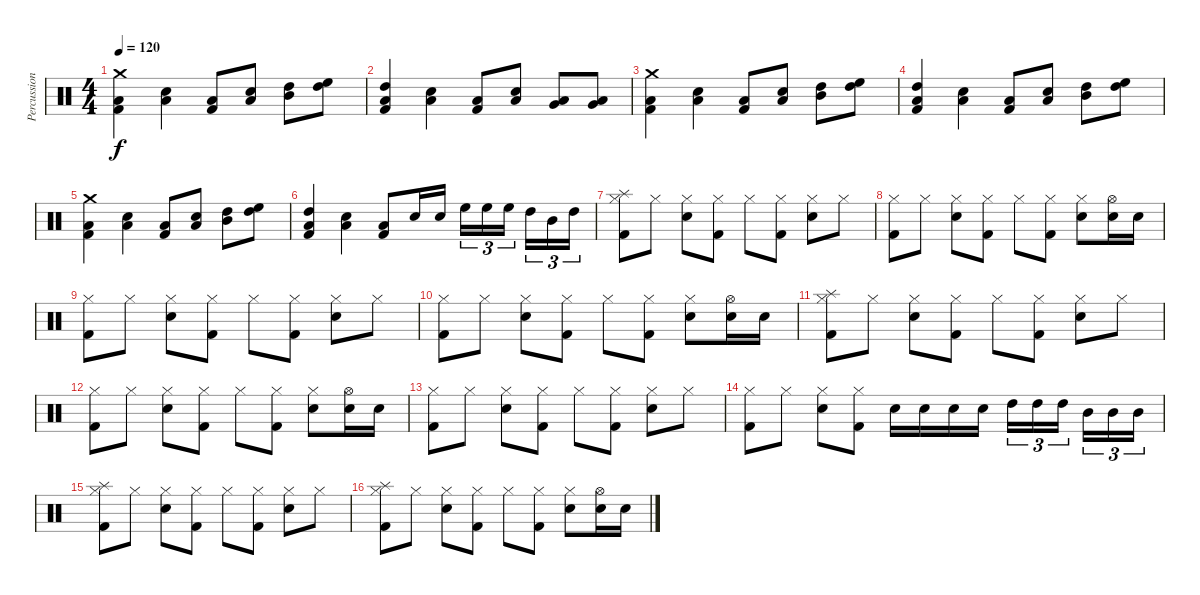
\track ("Percussion" "Percussion") {instrument percussion}
\staff {score}
\articulation defaults
\ts (4 4)
\tempo 120
\clef neutral
\ks c
("Kick (hit) 2" "Low Tom (hit)" "Crash medium (hit)").4{dy f} ("Electric Snare (hit)" "Low Tom (hit)").4 ("Kick (hit) 2" "Low Tom (hit)").8 ("Electric Snare (hit)" "Low Tom (hit)").8 ("High Tom (hit)" "Mid Tom (hit)").8 ("High Tom (hit)" "High Floor Tom (hit)").8 |
("Kick (hit) 2" "Low Tom (hit)" "High Tom (hit)").4 ("Electric Snare (hit)" "Low Tom (hit)").4 ("Kick (hit) 2" "Low Tom (hit)").8 ("Electric Snare (hit)" "Low Tom (hit)").8 ("Very Low Tom (hit)" "Low Tom (hit)").8 ("Very Low Tom (hit)" "Low Tom (hit)").8 |
("Kick (hit) 2" "Low Tom (hit)" "Crash medium (hit)").4 ("Electric Snare (hit)" "Low Tom (hit)").4 ("Kick (hit) 2" "Low Tom (hit)").8 ("Electric Snare (hit)" "Low Tom (hit)").8 ("High Tom (hit)" "Mid Tom (hit)").8 ("High Tom (hit)" "High Floor Tom (hit)").8 |
("Kick (hit) 2" "Low Tom (hit)" "High Tom (hit)").4 ("Electric Snare (hit)" "Low Tom (hit)").4 ("Kick (hit) 2" "Low Tom (hit)").8 ("Electric Snare (hit)" "Low Tom (hit)").8 ("High Tom (hit)" "Mid Tom (hit)").8 ("High Tom (hit)" "High Floor Tom (hit)").8 |
("Kick (hit) 2" "Low Tom (hit)" "Crash medium (hit)").4 ("Electric Snare (hit)" "Low Tom (hit)").4 ("Kick (hit) 2" "Low Tom (hit)").8 ("Electric Snare (hit)" "Low Tom (hit)").8 ("High Tom (hit)" "Mid Tom (hit)").8 ("High Tom (hit)" "High Floor Tom (hit)").8 |
("Kick (hit) 2" "Low Tom (hit)" "High Tom (hit)").4 ("Electric Snare (hit)" "Low Tom (hit)").4 ("Kick (hit) 2" "Low Tom (hit)").8 "Electric Snare (hit)".16 "Electric Snare (hit)".16 "High Floor Tom (hit)".16{tu (3 2)} "High Floor Tom (hit)".16{tu (3 2)} "High Floor Tom (hit)".16{tu (3 2) beam splitsecondary} "High Tom (hit)".16{tu (3 2)} "Mid Tom (hit)".16{tu (3 2)} "High Tom (hit)".16{tu (3 2)} |
("Kick (hit) 2" "Hi-Hat (closed)" "Splash (hit)").8 "Hi-Hat (closed)".8 ("Hi-Hat (closed)" "Electric Snare (hit)").8 ("Kick (hit) 2" "Hi-Hat (closed)").8 "Hi-Hat (closed)".8 ("Kick (hit) 2" "Hi-Hat (closed)").8 ("Hi-Hat (closed)" "Electric Snare (hit)").8 "Hi-Hat (closed)".8 |
("Kick (hit) 2" "Hi-Hat (closed)").8 "Hi-Hat (closed)".8 ("Hi-Hat (closed)" "Electric Snare (hit)").8 ("Kick (hit) 2" "Hi-Hat (closed)").8 "Hi-Hat (closed)".8 ("Kick (hit) 2" "Hi-Hat (closed)").8 ("Hi-Hat (closed)" "Electric Snare (hit)").8 ("Hi-Hat (open)" "Electric Snare (hit)").16 "Electric Snare (hit)".16 |
("Kick (hit) 2" "Hi-Hat (closed)").8 "Hi-Hat (closed)".8 ("Hi-Hat (closed)" "Electric Snare (hit)").8 ("Kick (hit) 2" "Hi-Hat (closed)").8 "Hi-Hat (closed)".8 ("Kick (hit) 2" "Hi-Hat (closed)").8 ("Hi-Hat (closed)" "Electric Snare (hit)").8 "Hi-Hat (closed)".8 |
("Kick (hit) 2" "Hi-Hat (closed)").8 "Hi-Hat (closed)".8 ("Hi-Hat (closed)" "Electric Snare (hit)").8 ("Kick (hit) 2" "Hi-Hat (closed)").8 "Hi-Hat (closed)".8 ("Kick (hit) 2" "Hi-Hat (closed)").8 ("Hi-Hat (closed)" "Electric Snare (hit)").8 ("Hi-Hat (open)" "Electric Snare (hit)").16 "Electric Snare (hit)".16 |
("Kick (hit) 2" "Hi-Hat (closed)" "Splash (hit)").8 "Hi-Hat (closed)".8 ("Hi-Hat (closed)" "Electric Snare (hit)").8 ("Kick (hit) 2" "Hi-Hat (closed)").8 "Hi-Hat (closed)".8 ("Kick (hit) 2" "Hi-Hat (closed)").8 ("Hi-Hat (closed)" "Electric Snare (hit)").8 "Hi-Hat (closed)".8 |
("Kick (hit) 2" "Hi-Hat (closed)").8 "Hi-Hat (closed)".8 ("Hi-Hat (closed)" "Electric Snare (hit)").8 ("Kick (hit) 2" "Hi-Hat (closed)").8 "Hi-Hat (closed)".8 ("Kick (hit) 2" "Hi-Hat (closed)").8 ("Hi-Hat (closed)" "Electric Snare (hit)").8 ("Hi-Hat (open)" "Electric Snare (hit)").16 "Electric Snare (hit)".16 |
("Kick (hit) 2" "Hi-Hat (closed)").8 "Hi-Hat (closed)".8 ("Hi-Hat (closed)" "Electric Snare (hit)").8 ("Kick (hit) 2" "Hi-Hat (closed)").8 "Hi-Hat (closed)".8 ("Kick (hit) 2" "Hi-Hat (closed)").8 ("Hi-Hat (closed)" "Electric Snare (hit)").8 "Hi-Hat (closed)".8 |
("Kick (hit) 2" "Hi-Hat (closed)").8 "Hi-Hat (closed)".8 ("Hi-Hat (closed)" "Electric Snare (hit)").8 ("Kick (hit) 2" "Hi-Hat (closed)").8 "Electric Snare (hit)".16 "Electric Snare (hit)".16 "Electric Snare (hit)".16 "Electric Snare (hit)".16 "High Tom (hit)".16{tu (3 2)} "High Tom (hit)".16{tu (3 2)} "High Tom (hit)".16{tu (3 2) beam splitsecondary} "Mid Tom (hit)".16{tu (3 2)} "Mid Tom (hit)".16{tu (3 2)} "Mid Tom (hit)".16{tu (3 2)} |
("Kick (hit) 2" "Hi-Hat (closed)" "Splash (hit)").8 "Hi-Hat (closed)".8 ("Hi-Hat (closed)" "Electric Snare (hit)").8 ("Kick (hit) 2" "Hi-Hat (closed)").8 "Hi-Hat (closed)".8 ("Kick (hit) 2" "Hi-Hat (closed)").8 ("Hi-Hat (closed)" "Electric Snare (hit)").8 "Hi-Hat (closed)".8 |
("Kick (hit) 2" "Hi-Hat (closed)" "Splash (hit)").8 "Hi-Hat (closed)".8 ("Hi-Hat (closed)" "Electric Snare (hit)").8 ("Kick (hit) 2" "Hi-Hat (closed)").8 "Hi-Hat (closed)".8 ("Kick (hit) 2" "Hi-Hat (closed)").8 ("Hi-Hat (closed)" "Electric Snare (hit)").8 ("Hi-Hat (open)" "Electric Snare (hit)").16 "Electric Snare (hit)".16
